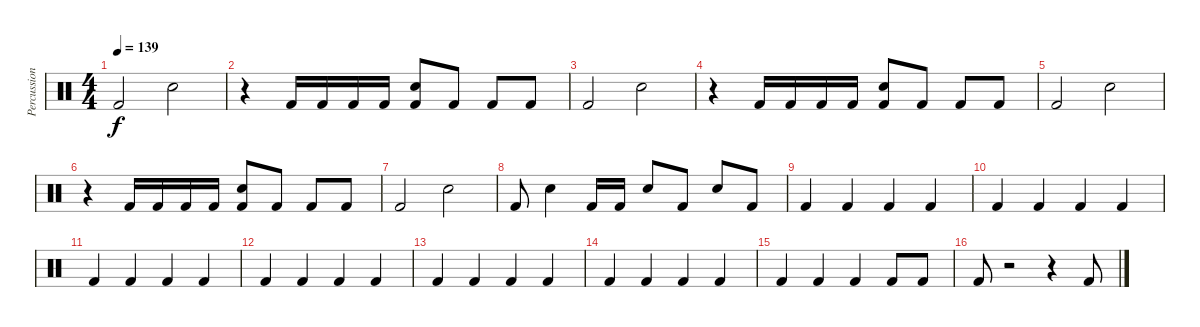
\track ("Percussion" "Percussion") {solo instrument percussion}
\staff {score}
\articulation defaults
\ts (4 4)
\tempo 139
\clef neutral
\ks c "Kick (hit) 2".2{dy f} "Snare (hit) 2".2
|
r.4 "Kick (hit) 2".16 "Kick (hit) 2".16 "Kick (hit) 2".16 "Kick (hit) 2".16 ("Snare (hit) 2" "Kick (hit) 2").8 "Kick (hit) 2".8 "Kick (hit) 2".8 "Kick (hit) 2".8 |
"Kick (hit) 2".2 "Snare (hit) 2".2 |
r.4 "Kick (hit) 2".16 "Kick (hit) 2".16 "Kick (hit) 2".16 "Kick (hit) 2".16 ("Snare (hit) 2" "Kick (hit) 2").8 "Kick (hit) 2".8 "Kick (hit) 2".8 "Kick (hit) 2".8 |
"Kick (hit) 2".2 "Snare (hit) 2".2 |
r.4 "Kick (hit) 2".16 "Kick (hit) 2".16 "Kick (hit) 2".16 "Kick (hit) 2".16 ("Snare (hit) 2" "Kick (hit) 2").8 "Kick (hit) 2".8 "Kick (hit) 2".8 "Kick (hit) 2".8 |
"Kick (hit) 2".2 "Snare (hit) 2".2 |
"Kick (hit) 2".8 "Snare (hit) 2".4 "Kick (hit) 2".16 "Kick (hit) 2".16 "Snare (hit) 2".8 "Kick (hit) 2".8 "Snare (hit) 2".8 "Kick (hit) 2".8 |
"Kick (hit) 2".4 "Kick (hit) 2".4 "Kick (hit) 2".4 "Kick (hit) 2".4 |
"Kick (hit) 2".4 "Kick (hit) 2".4 "Kick (hit) 2".4 "Kick (hit) 2".4 |
"Kick (hit) 2".4 "Kick (hit) 2".4 "Kick (hit) 2".4 "Kick (hit) 2".4 |
"Kick (hit) 2".4 "Kick (hit) 2".4 "Kick (hit) 2".4 "Kick (hit) 2".4 |
"Kick (hit) 2".4 "Kick (hit) 2".4 "Kick (hit) 2".4 "Kick (hit) 2".4 |
"Kick (hit) 2".4 "Kick (hit) 2".4 "Kick (hit) 2".4 "Kick (hit) 2".4 |
"Kick (hit) 2".4 "Kick (hit) 2".4 "Kick (hit) 2".4 "Kick (hit) 2".8 "Kick (hit) 2".8 |
"Kick (hit) 2".8 r.2 r.4 "Kick (hit) 2".8
